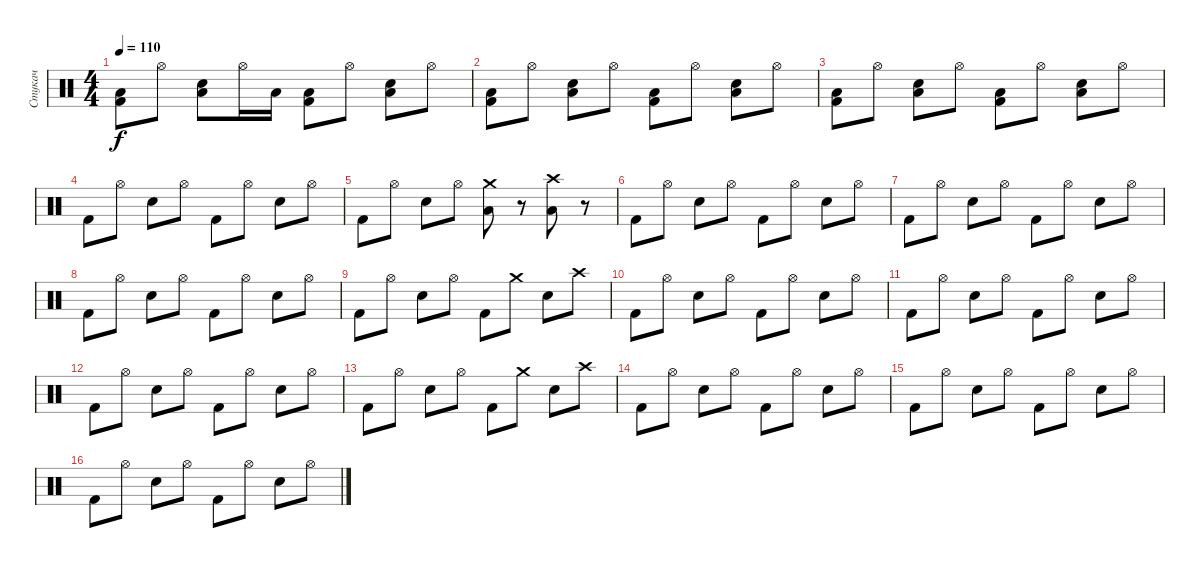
\track ("Стукач" "Стукач") {instrument percussion}
\staff {score}
\articulation defaults
\ts (4 4)
\tempo 110
\clef neutral
\ks c
("Kick (hit) 2" "Low Floor Tom (hit)").8{dy f} "Hi-Hat (open)".8 ("Electric Snare (hit)" "Low Floor Tom (hit)").8 "Hi-Hat (open)".16 "Low Floor Tom (hit)".16 ("Kick (hit) 2" "Low Floor Tom (hit)").8 "Hi-Hat (open)".8 ("Electric Snare (hit)" "Low Floor Tom (hit)").8 "Hi-Hat (open)".8 |
("Kick (hit) 2" "Low Floor Tom (hit)").8 "Hi-Hat (open)".8 ("Electric Snare (hit)" "Low Floor Tom (hit)").8 "Hi-Hat (open)".8 ("Kick (hit) 2" "Low Floor Tom (hit)").8 "Hi-Hat (open)".8 ("Electric Snare (hit)" "Low Floor Tom (hit)").8 "Hi-Hat (open)".8 |
("Kick (hit) 2" "Low Floor Tom (hit)").8 "Hi-Hat (open)".8 ("Electric Snare (hit)" "Low Floor Tom (hit)").8 "Hi-Hat (open)".8 ("Kick (hit) 2" "Low Floor Tom (hit)").8 "Hi-Hat (open)".8 ("Electric Snare (hit)" "Low Floor Tom (hit)").8 "Hi-Hat (open)".8 |
"Kick (hit) 2".8 "Hi-Hat (open)".8 "Electric Snare (hit)".8 "Hi-Hat (open)".8 "Kick (hit) 2".8 "Hi-Hat (open)".8 "Electric Snare (hit)".8 "Hi-Hat (open)".8 |
"Kick (hit) 2".8 "Hi-Hat (open)".8 "Electric Snare (hit)".8 "Hi-Hat (open)".8 ("Crash medium (hit)" "Low Floor Tom (hit)").8 r.8 ("Crash high (hit)" "Low Floor Tom (hit)").8 r.8 |
"Kick (hit) 2".8 "Hi-Hat (open)".8 "Electric Snare (hit)".8 "Hi-Hat (open)".8 "Kick (hit) 2".8 "Hi-Hat (open)".8 "Electric Snare (hit)".8 "Hi-Hat (open)".8 |
"Kick (hit) 2".8 "Hi-Hat (open)".8 "Electric Snare (hit)".8 "Hi-Hat (open)".8 "Kick (hit) 2".8 "Hi-Hat (open)".8 "Electric Snare (hit)".8 "Hi-Hat (open)".8 |
"Kick (hit) 2".8 "Hi-Hat (open)".8 "Electric Snare (hit)".8 "Hi-Hat (open)".8 "Kick (hit) 2".8 "Hi-Hat (open)".8 "Electric Snare (hit)".8 "Hi-Hat (open)".8 |
"Kick (hit) 2".8 "Hi-Hat (open)".8 "Electric Snare (hit)".8 "Hi-Hat (open)".8 "Kick (hit) 2".8 "Crash medium (hit)".8 "Electric Snare (hit)".8 "Crash high (hit)".8 |
"Kick (hit) 2".8 "Hi-Hat (open)".8 "Electric Snare (hit)".8 "Hi-Hat (open)".8 "Kick (hit) 2".8 "Hi-Hat (open)".8 "Electric Snare (hit)".8 "Hi-Hat (open)".8 |
"Kick (hit) 2".8 "Hi-Hat (open)".8 "Electric Snare (hit)".8 "Hi-Hat (open)".8 "Kick (hit) 2".8 "Hi-Hat (open)".8 "Electric Snare (hit)".8 "Hi-Hat (open)".8 |
"Kick (hit) 2".8 "Hi-Hat (open)".8 "Electric Snare (hit)".8 "Hi-Hat (open)".8 "Kick (hit) 2".8 "Hi-Hat (open)".8 "Electric Snare (hit)".8 "Hi-Hat (open)".8 |
"Kick (hit) 2".8 "Hi-Hat (open)".8 "Electric Snare (hit)".8 "Hi-Hat (open)".8 "Kick (hit) 2".8 "Crash medium (hit)".8 "Electric Snare (hit)".8 "Crash high (hit)".8 |
"Kick (hit) 2".8 "Hi-Hat (open)".8 "Electric Snare (hit)".8 "Hi-Hat (open)".8 "Kick (hit) 2".8 "Hi-Hat (open)".8 "Electric Snare (hit)".8 "Hi-Hat (open)".8 |
"Kick (hit) 2".8 "Hi-Hat (open)".8 "Electric Snare (hit)".8 "Hi-Hat (open)".8 "Kick (hit) 2".8 "Hi-Hat (open)".8 "Electric Snare (hit)".8 "Hi-Hat (open)".8 |
"Kick (hit) 2".8 "Hi-Hat (open)".8 "Electric Snare (hit)".8 "Hi-Hat (open)".8 "Kick (hit) 2".8 "Hi-Hat (open)".8 "Electric Snare (hit)".8 "Hi-Hat (open)".8
